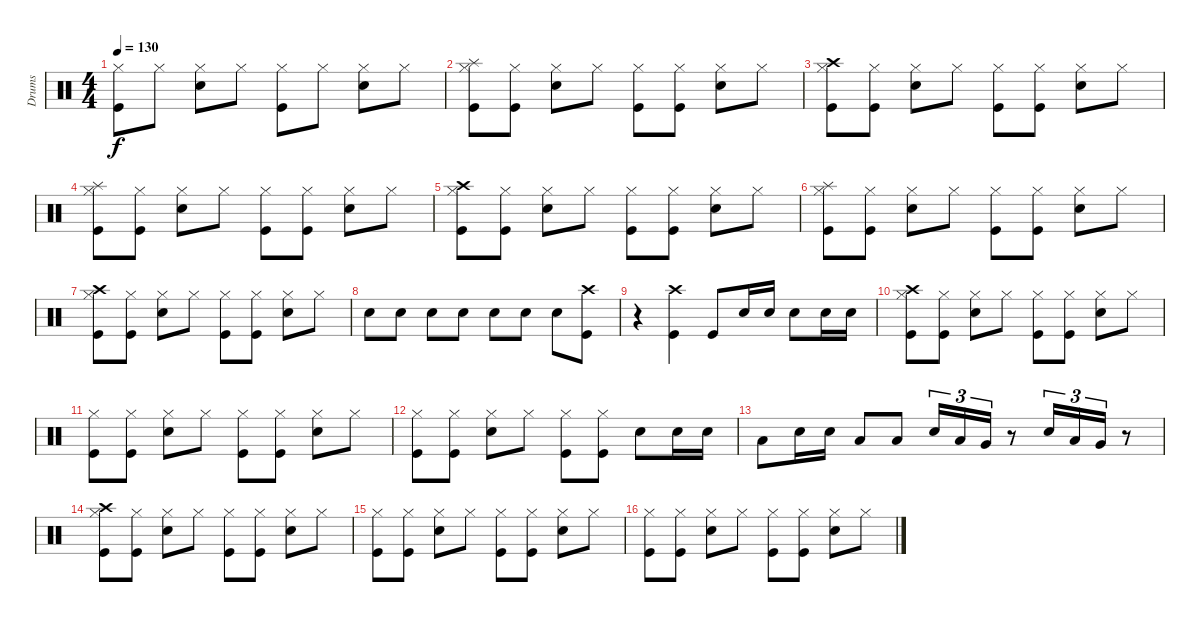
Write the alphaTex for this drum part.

\track ("Drums" "Drums") {instrument percussion}
\staff {score}
\articulation defaults
\ts (4 4)
\tempo 130
\clef neutral
\ks c
("Hi-Hat (closed)" "Kick (hit)").8{dy f} "Hi-Hat (closed)".8 ("Hi-Hat (closed)" "Snare (hit) 2").8 "Hi-Hat (closed)".8 ("Hi-Hat (closed)" "Kick (hit)").8 "Hi-Hat (closed)".8 ("Hi-Hat (closed)" "Snare (hit) 2").8 "Hi-Hat (closed)".8 |
("Hi-Hat (closed)" "Kick (hit)" "Splash (hit)").8 ("Hi-Hat (closed)" "Kick (hit)").8 ("Hi-Hat (closed)" "Snare (hit) 2").8 "Hi-Hat (closed)".8 ("Hi-Hat (closed)" "Kick (hit)").8 ("Hi-Hat (closed)" "Kick (hit)").8 ("Hi-Hat (closed)" "Snare (hit) 2").8 "Hi-Hat (closed)".8 |
("Hi-Hat (closed)" "Kick (hit)" "Crash high (hit)").8 ("Hi-Hat (closed)" "Kick (hit)").8 ("Hi-Hat (closed)" "Snare (hit) 2").8 "Hi-Hat (closed)".8 ("Hi-Hat (closed)" "Kick (hit)").8 ("Hi-Hat (closed)" "Kick (hit)").8 ("Hi-Hat (closed)" "Snare (hit) 2").8 "Hi-Hat (closed)".8 |
("Hi-Hat (closed)" "Kick (hit)" "Splash (hit)").8 ("Hi-Hat (closed)" "Kick (hit)").8 ("Hi-Hat (closed)" "Snare (hit) 2").8 "Hi-Hat (closed)".8 ("Hi-Hat (closed)" "Kick (hit)").8 ("Hi-Hat (closed)" "Kick (hit)").8 ("Hi-Hat (closed)" "Snare (hit) 2").8 "Hi-Hat (closed)".8 |
("Hi-Hat (closed)" "Kick (hit)" "Crash high (hit)").8 ("Hi-Hat (closed)" "Kick (hit)").8 ("Hi-Hat (closed)" "Snare (hit) 2").8 "Hi-Hat (closed)".8 ("Hi-Hat (closed)" "Kick (hit)").8 ("Hi-Hat (closed)" "Kick (hit)").8 ("Hi-Hat (closed)" "Snare (hit) 2").8 "Hi-Hat (closed)".8 |
("Hi-Hat (closed)" "Kick (hit)" "Splash (hit)").8 ("Hi-Hat (closed)" "Kick (hit)").8 ("Hi-Hat (closed)" "Snare (hit) 2").8 "Hi-Hat (closed)".8 ("Hi-Hat (closed)" "Kick (hit)").8 ("Hi-Hat (closed)" "Kick (hit)").8 ("Hi-Hat (closed)" "Snare (hit) 2").8 "Hi-Hat (closed)".8 |
("Hi-Hat (closed)" "Kick (hit)" "Crash high (hit)").8 ("Hi-Hat (closed)" "Kick (hit)").8 ("Hi-Hat (closed)" "Snare (hit) 2").8 "Hi-Hat (closed)".8 ("Hi-Hat (closed)" "Kick (hit)").8 ("Hi-Hat (closed)" "Kick (hit)").8 ("Hi-Hat (closed)" "Snare (hit) 2").8 "Hi-Hat (closed)".8 |
"Snare (hit) 2".8 "Snare (hit) 2".8 "Snare (hit) 2".8 "Snare (hit) 2".8 "Snare (hit) 2".8 "Snare (hit) 2".8 "Snare (hit) 2".8 ("Kick (hit)" "Crash high (hit)").8 |
r.4 ("Kick (hit)" "Crash high (hit)").4 "Kick (hit)".8 "Snare (hit) 2".16 "Snare (hit) 2".16 "Snare (hit) 2".8 "Snare (hit) 2".16 "Snare (hit) 2".16 |
("Hi-Hat (closed)" "Kick (hit)" "Crash high (hit)").8 ("Hi-Hat (closed)" "Kick (hit)").8 ("Hi-Hat (closed)" "Snare (hit) 2").8 "Hi-Hat (closed)".8 ("Hi-Hat (closed)" "Kick (hit)").8 ("Hi-Hat (closed)" "Kick (hit)").8 ("Hi-Hat (closed)" "Snare (hit) 2").8 "Hi-Hat (closed)".8 |
("Hi-Hat (closed)" "Kick (hit)").8 ("Hi-Hat (closed)" "Kick (hit)").8 ("Hi-Hat (closed)" "Snare (hit) 2").8 "Hi-Hat (closed)".8 ("Hi-Hat (closed)" "Kick (hit)").8 ("Hi-Hat (closed)" "Kick (hit)").8 ("Hi-Hat (closed)" "Snare (hit) 2").8 "Hi-Hat (closed)".8 |
("Hi-Hat (closed)" "Kick (hit)").8 ("Hi-Hat (closed)" "Kick (hit)").8 ("Hi-Hat (closed)" "Snare (hit) 2").8 "Hi-Hat (closed)".8 ("Hi-Hat (closed)" "Kick (hit)").8 ("Hi-Hat (closed)" "Kick (hit)").8 "Snare (hit) 2".8 "Snare (hit) 2".16 "Snare (hit) 2".16 |
"Low Tom (hit)".8 "Snare (hit) 2".16 "Snare (hit) 2".16 "Low Tom (hit)".8 "Low Tom (hit)".8 "Snare (hit) 2".16{tu (3 2)} "Low Tom (hit)".16{tu (3 2)} "Very Low Tom (hit)".16{tu (3 2)} r.8 "Snare (hit) 2".16{tu (3 2)} "Low Tom (hit)".16{tu (3 2)} "Very Low Tom (hit)".16{tu (3 2)} r.8 |
("Hi-Hat (closed)" "Kick (hit)" "Crash high (hit)").8 ("Hi-Hat (closed)" "Kick (hit)").8 ("Hi-Hat (closed)" "Snare (hit) 2").8 "Hi-Hat (closed)".8 ("Hi-Hat (closed)" "Kick (hit)").8 ("Hi-Hat (closed)" "Kick (hit)").8 ("Hi-Hat (closed)" "Snare (hit) 2").8 "Hi-Hat (closed)".8 |
("Hi-Hat (closed)" "Kick (hit)").8 ("Hi-Hat (closed)" "Kick (hit)").8 ("Hi-Hat (closed)" "Snare (hit) 2").8 "Hi-Hat (closed)".8 ("Hi-Hat (closed)" "Kick (hit)").8 ("Hi-Hat (closed)" "Kick (hit)").8 ("Hi-Hat (closed)" "Snare (hit) 2").8 "Hi-Hat (closed)".8 |
("Hi-Hat (closed)" "Kick (hit)").8 ("Hi-Hat (closed)" "Kick (hit)").8 ("Hi-Hat (closed)" "Snare (hit) 2").8 "Hi-Hat (closed)".8 ("Hi-Hat (closed)" "Kick (hit)").8 ("Hi-Hat (closed)" "Kick (hit)").8 ("Hi-Hat (closed)" "Snare (hit) 2").8 "Hi-Hat (closed)".8
